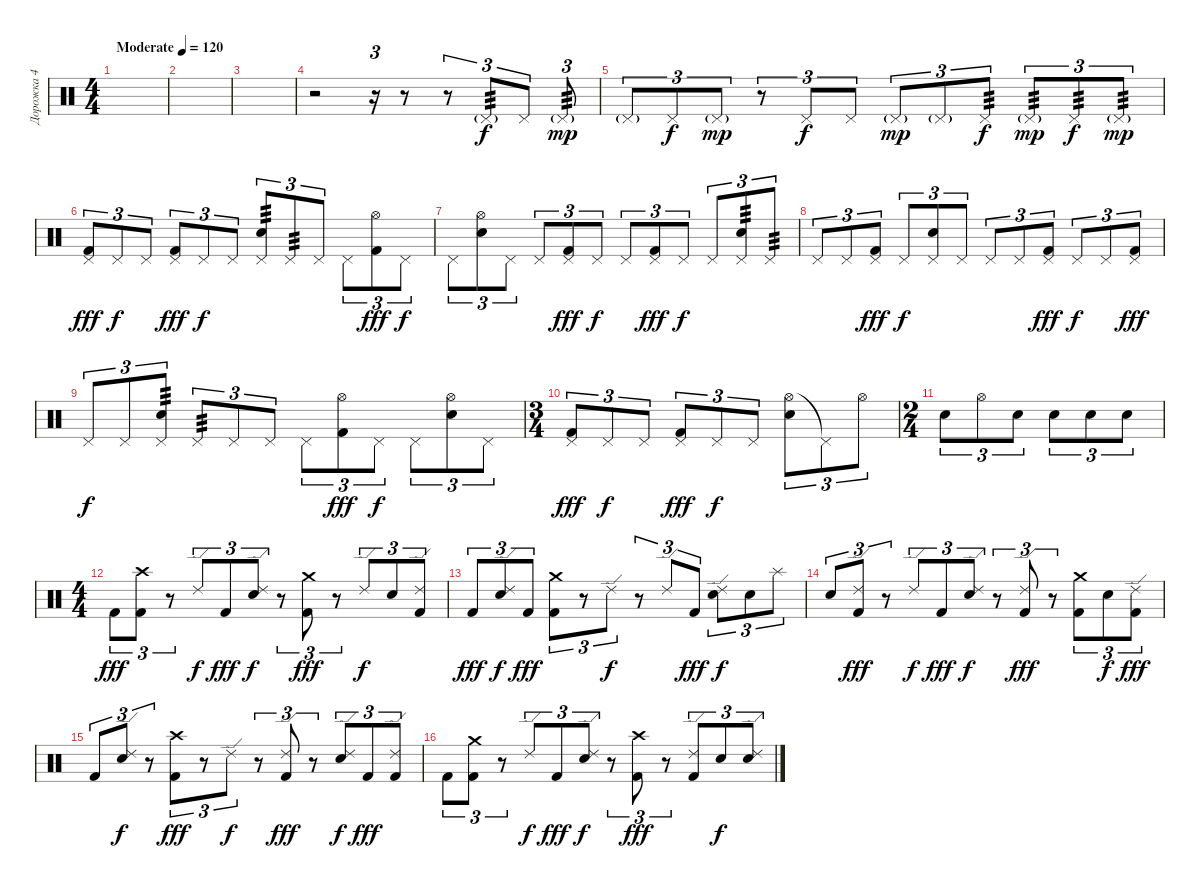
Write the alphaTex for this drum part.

\track ("Дорожка 4" "Дорожка 4") {instrument percussion}
\staff {score}
\articulation defaults
\ts (4 4)
\tempo (120 "Moderate")
\clef neutral
\ks c
|
|
|
r.2 r.16{tu (3 2)} r.8 r.8{tu (3 2)} "Pedal Hi-Hat (hit)"{g}.8{tu (3 2) tp 3} "Pedal Hi-Hat (hit)".8{tu (3 2) dy f} "Pedal Hi-Hat (hit)"{g}.8{tu (3 2) tp 3 dy mp} |
"Pedal Hi-Hat (hit)"{g}.8{tu (3 2)} "Pedal Hi-Hat (hit)".8{tu (3 2) dy f} "Pedal Hi-Hat (hit)"{g}.8{tu (3 2) dy mp} r.8{tu (3 2)} "Pedal Hi-Hat (hit)".8{tu (3 2) dy f} "Pedal Hi-Hat (hit)".8{tu (3 2)} "Pedal Hi-Hat (hit)"{g}.8{tu (3 2) dy mp} "Pedal Hi-Hat (hit)"{g}.8{tu (3 2)} "Pedal Hi-Hat (hit)".8{tu (3 2) tp 3 dy f} "Pedal Hi-Hat (hit)"{g}.8{tu (3 2) tp 3 dy mp} "Pedal Hi-Hat (hit)".8{tu (3 2) tp 3 dy f} "Pedal Hi-Hat (hit)"{g}.8{tu (3 2) tp 3 dy mp} |
("Pedal Hi-Hat (hit)" "Kick (hit) 2").8{tu (3 2) dy fff} "Pedal Hi-Hat (hit)".8{tu (3 2) dy f} "Pedal Hi-Hat (hit)".8{tu (3 2)} ("Pedal Hi-Hat (hit)" "Kick (hit) 2").8{tu (3 2) dy fff} "Pedal Hi-Hat (hit)".8{tu (3 2) dy f} "Pedal Hi-Hat (hit)".8{tu (3 2)} ("Pedal Hi-Hat (hit)" "Electric Snare (hit)").8{tu (3 2) tp 3} "Pedal Hi-Hat (hit)".8{tu (3 2) tp 3} "Pedal Hi-Hat (hit)".8{tu (3 2)} "Pedal Hi-Hat (hit)".8{tu (3 2)} ("Hi-Hat (open)" "Kick (hit) 2").8{tu (3 2) dy fff} "Pedal Hi-Hat (hit)".8{tu (3 2) dy f} |
"Pedal Hi-Hat (hit)".8{tu (3 2)} ("Hi-Hat (open)" "Electric Snare (hit)").8{tu (3 2)} "Pedal Hi-Hat (hit)".8{tu (3 2)} "Pedal Hi-Hat (hit)".8{tu (3 2)} ("Pedal Hi-Hat (hit)" "Kick (hit) 2").8{tu (3 2) dy fff} "Pedal Hi-Hat (hit)".8{tu (3 2) dy f} "Pedal Hi-Hat (hit)".8{tu (3 2)} ("Pedal Hi-Hat (hit)" "Kick (hit) 2").8{tu (3 2) dy fff} "Pedal Hi-Hat (hit)".8{tu (3 2) dy f} "Pedal Hi-Hat (hit)".8{tu (3 2)} ("Pedal Hi-Hat (hit)" "Electric Snare (hit)").8{tu (3 2) tp 3} "Pedal Hi-Hat (hit)".8{tu (3 2) tp 3} |
"Pedal Hi-Hat (hit)".8{tu (3 2)} "Pedal Hi-Hat (hit)".8{tu (3 2)} ("Pedal Hi-Hat (hit)" "Kick (hit) 2").8{tu (3 2) dy fff} "Pedal Hi-Hat (hit)".8{tu (3 2) dy f} ("Pedal Hi-Hat (hit)" "Electric Snare (hit)").8{tu (3 2)} "Pedal Hi-Hat (hit)".8{tu (3 2)} "Pedal Hi-Hat (hit)".8{tu (3 2)} "Pedal Hi-Hat (hit)".8{tu (3 2)} ("Pedal Hi-Hat (hit)" "Kick (hit) 2").8{tu (3 2) dy fff} "Pedal Hi-Hat (hit)".8{tu (3 2) dy f} "Pedal Hi-Hat (hit)".8{tu (3 2)} ("Pedal Hi-Hat (hit)" "Kick (hit) 2").8{tu (3 2) dy fff} |
"Pedal Hi-Hat (hit)".8{tu (3 2) dy f} "Pedal Hi-Hat (hit)".8{tu (3 2)} ("Pedal Hi-Hat (hit)" "Electric Snare (hit)").8{tu (3 2) tp 3} "Pedal Hi-Hat (hit)".8{tu (3 2) tp 3} "Pedal Hi-Hat (hit)".8{tu (3 2)} "Pedal Hi-Hat (hit)".8{tu (3 2)} "Pedal Hi-Hat (hit)".8{tu (3 2)} ("Hi-Hat (open)" "Kick (hit) 2").8{tu (3 2) dy fff} "Pedal Hi-Hat (hit)".8{tu (3 2) dy f} "Pedal Hi-Hat (hit)".8{tu (3 2)} ("Hi-Hat (open)" "Electric Snare (hit)").8{tu (3 2)} "Pedal Hi-Hat (hit)".8{tu (3 2)} |
\ts (3 4)
("Pedal Hi-Hat (hit)" "Kick (hit) 2").8{tu (3 2) dy fff} "Pedal Hi-Hat (hit)".8{tu (3 2) dy f} "Pedal Hi-Hat (hit)".8{tu (3 2)} ("Pedal Hi-Hat (hit)" "Kick (hit) 2").8{tu (3 2) dy fff} "Pedal Hi-Hat (hit)".8{tu (3 2) dy f} "Pedal Hi-Hat (hit)".8{tu (3 2)} ("Hi-Hat (open)" "Electric Snare (hit)").8{tu (3 2)} "Pedal Hi-Hat (hit)"{t}.8{tu (3 2)} "Hi-Hat (open)".8{tu (3 2)} |
\ts (2 4)
"Electric Snare (hit)".8{tu (3 2)} "Hi-Hat (open)".8{tu (3 2)} "Electric Snare (hit)".8{tu (3 2)} "Electric Snare (hit)".8{tu (3 2)} "Electric Snare (hit)".8{tu (3 2)} "Electric Snare (hit)".8{tu (3 2)} |
\ts (4 4)
"Kick (hit) 2".8{tu (3 2) dy fff} ("Crash high (hit)" "Kick (hit) 2").8{tu (3 2)} r.8{tu (3 2)} "Ride (edge) 2".8{tu (3 2) dy f} "Kick (hit) 2".8{tu (3 2) dy fff} ("Ride (edge) 2" "Electric Snare (hit)").8{tu (3 2) dy f} r.8{tu (3 2)} ("Crash medium (hit)" "Kick (hit) 2").8{tu (3 2) dy fff} r.8{tu (3 2)} "Ride (edge) 2".8{tu (3 2) dy f} "Electric Snare (hit)".8{tu (3 2)} ("Ride (edge) 2" "Kick (hit) 2").8{tu (3 2)} |
"Kick (hit) 2".8{tu (3 2) dy fff} ("Ride (edge) 2" "Electric Snare (hit)").8{tu (3 2) dy f} "Kick (hit) 2".8{tu (3 2) dy fff} ("Crash medium (hit)" "Kick (hit) 2").8{tu (3 2)} r.8{tu (3 2)} "Ride (edge) 2".8{tu (3 2) dy f} r.8{tu (3 2)} "Ride (edge) 2".8{tu (3 2)} "Kick (hit) 2".8{tu (3 2) dy fff} ("Ride (edge) 2" "Electric Snare (hit)").8{tu (3 2) dy f} "Electric Snare (hit)".8{tu (3 2)} "Splash (hit)".8{tu (3 2)} |
"Electric Snare (hit)".8{tu (3 2)} ("Ride (edge) 2" "Kick (hit) 2").8{tu (3 2) dy fff} r.8{tu (3 2)} "Ride (edge) 2".8{tu (3 2) dy f} "Kick (hit) 2".8{tu (3 2) dy fff} ("Ride (edge) 2" "Electric Snare (hit)").8{tu (3 2) dy f} r.8{tu (3 2)} ("Ride (edge) 2" "Kick (hit) 2").8{tu (3 2) dy fff} r.8{tu (3 2)} ("Crash medium (hit)" "Kick (hit) 2").8{tu (3 2)} "Electric Snare (hit)".8{tu (3 2) dy f} ("Ride (edge) 2" "Kick (hit) 2").8{tu (3 2) dy fff} |
"Kick (hit) 2".8{tu (3 2)} ("Ride (edge) 2" "Electric Snare (hit)").8{tu (3 2) dy f} r.8{tu (3 2)} ("Crash high (hit)" "Kick (hit) 2").8{tu (3 2) dy fff} r.8{tu (3 2)} "Ride (edge) 2".8{tu (3 2) dy f} r.8{tu (3 2)} ("Ride (edge) 2" "Kick (hit) 2").8{tu (3 2) dy fff} r.8{tu (3 2)} ("Ride (edge) 2" "Electric Snare (hit)").8{tu (3 2) dy f} "Kick (hit) 2".8{tu (3 2) dy fff} ("Ride (edge) 2" "Kick (hit) 2").8{tu (3 2)} |
"Kick (hit) 2".8{tu (3 2)} ("Crash medium (hit)" "Kick (hit) 2").8{tu (3 2)} r.8{tu (3 2)} "Ride (edge) 2".8{tu (3 2) dy f} "Kick (hit) 2".8{tu (3 2) dy fff} ("Ride (edge) 2" "Electric Snare (hit)").8{tu (3 2) dy f} r.8{tu (3 2)} ("Crash high (hit)" "Kick (hit) 2").8{tu (3 2) dy fff} r.8{tu (3 2)} ("Ride (edge) 2" "Kick (hit) 2").8{tu (3 2)} "Electric Snare (hit)".8{tu (3 2) dy f} ("Ride (edge) 2" "Electric Snare (hit)").8{tu (3 2)}
